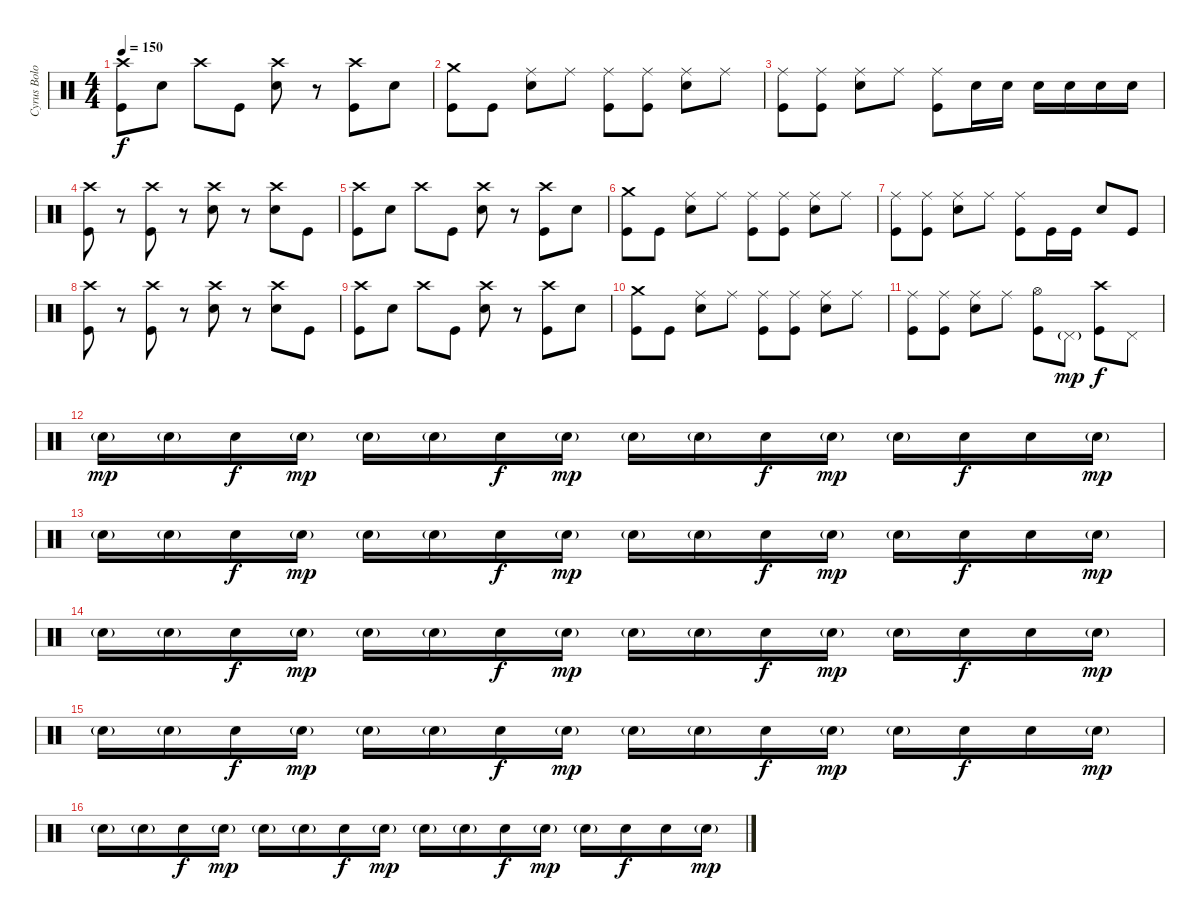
\track ("Cyrus Bolooki - Drums" "Cyrus Bolo") {instrument percussion}
\staff {score}
\articulation defaults
\ts (4 4)
\tempo 150
\clef neutral
\ks c
("Crash high (hit)" "Kick (hit)").8{dy f} "Electric Snare (hit)".8 "Crash high (hit)".8 "Kick (hit)".8 ("Crash high (hit)" "Electric Snare (hit)").8 r.8 ("Crash high (hit)" "Kick (hit)").8 "Electric Snare (hit)".8 |
("Crash medium (hit)" "Kick (hit)").8 "Kick (hit)".8 ("Ride (middle)" "Electric Snare (hit)").8 "Ride (middle)".8 ("Ride (middle)" "Kick (hit)").8 ("Ride (middle)" "Kick (hit)").8 ("Ride (middle)" "Electric Snare (hit)").8 "Ride (middle)".8 |
("Ride (middle)" "Kick (hit)").8 ("Ride (middle)" "Kick (hit)").8 ("Ride (middle)" "Electric Snare (hit)").8 "Ride (middle)".8 ("Ride (middle)" "Kick (hit)").8 "Electric Snare (hit)".16 "Electric Snare (hit)".16 "Electric Snare (hit)".16 "Electric Snare (hit)".16 "Electric Snare (hit)".16 "Electric Snare (hit)".16 |
("Crash high (hit)" "Kick (hit)").8 r.8 ("Crash high (hit)" "Kick (hit)").8 r.8 ("Crash high (hit)" "Electric Snare (hit)").8 r.8 ("Crash high (hit)" "Electric Snare (hit)").8 "Kick (hit)".8 |
("Crash high (hit)" "Kick (hit)").8 "Electric Snare (hit)".8 "Crash high (hit)".8 "Kick (hit)".8 ("Crash high (hit)" "Electric Snare (hit)").8 r.8 ("Crash high (hit)" "Kick (hit)").8 "Electric Snare (hit)".8 |
("Crash medium (hit)" "Kick (hit)").8 "Kick (hit)".8 ("Ride (middle)" "Electric Snare (hit)").8 "Ride (middle)".8 ("Ride (middle)" "Kick (hit)").8 ("Ride (middle)" "Kick (hit)").8 ("Ride (middle)" "Electric Snare (hit)").8 "Ride (middle)".8 |
("Ride (middle)" "Kick (hit)").8 ("Ride (middle)" "Kick (hit)").8 ("Ride (middle)" "Electric Snare (hit)").8 "Ride (middle)".8 ("Ride (middle)" "Kick (hit)").8 "Kick (hit)".16 "Kick (hit)".16 "Electric Snare (hit)".8 "Kick (hit)".8 |
("Crash high (hit)" "Kick (hit)").8 r.8 ("Crash high (hit)" "Kick (hit)").8 r.8 ("Crash high (hit)" "Electric Snare (hit)").8 r.8 ("Crash high (hit)" "Electric Snare (hit)").8 "Kick (hit)".8 |
("Crash high (hit)" "Kick (hit)").8 "Electric Snare (hit)".8 "Crash high (hit)".8 "Kick (hit)".8 ("Crash high (hit)" "Electric Snare (hit)").8 r.8 ("Crash high (hit)" "Kick (hit)").8 "Electric Snare (hit)".8 |
("Crash medium (hit)" "Kick (hit)").8 "Kick (hit)".8 ("Ride (middle)" "Electric Snare (hit)").8 "Ride (middle)".8 ("Ride (middle)" "Kick (hit)").8 ("Ride (middle)" "Kick (hit)").8 ("Ride (middle)" "Electric Snare (hit)").8 "Ride (middle)".8 |
("Ride (middle)" "Kick (hit)").8 ("Ride (middle)" "Kick (hit)").8 ("Ride (middle)" "Electric Snare (hit)").8 "Ride (middle)".8 ("Hi-Hat (open)" "Kick (hit)").8 "Pedal Hi-Hat (hit)"{g}.8{dy mp} ("Crash high (hit)" "Kick (hit)").8{dy f} "Pedal Hi-Hat (hit)".8 |
"Electric Snare (hit)"{g}.16{dy mp} "Electric Snare (hit)"{g}.16 "Electric Snare (hit)".16{dy f} "Electric Snare (hit)"{g}.16{dy mp} "Electric Snare (hit)"{g}.16 "Electric Snare (hit)"{g}.16 "Electric Snare (hit)".16{dy f} "Electric Snare (hit)"{g}.16{dy mp} "Electric Snare (hit)"{g}.16 "Electric Snare (hit)"{g}.16 "Electric Snare (hit)".16{dy f} "Electric Snare (hit)"{g}.16{dy mp} "Electric Snare (hit)"{g}.16 "Electric Snare (hit)".16{dy f} "Electric Snare (hit)".16 "Electric Snare (hit)"{g}.16{dy mp} |
"Electric Snare (hit)"{g}.16 "Electric Snare (hit)"{g}.16 "Electric Snare (hit)".16{dy f} "Electric Snare (hit)"{g}.16{dy mp} "Electric Snare (hit)"{g}.16 "Electric Snare (hit)"{g}.16 "Electric Snare (hit)".16{dy f} "Electric Snare (hit)"{g}.16{dy mp} "Electric Snare (hit)"{g}.16 "Electric Snare (hit)"{g}.16 "Electric Snare (hit)".16{dy f} "Electric Snare (hit)"{g}.16{dy mp} "Electric Snare (hit)"{g}.16 "Electric Snare (hit)".16{dy f} "Electric Snare (hit)".16 "Electric Snare (hit)"{g}.16{dy mp} |
"Electric Snare (hit)"{g}.16 "Electric Snare (hit)"{g}.16 "Electric Snare (hit)".16{dy f} "Electric Snare (hit)"{g}.16{dy mp} "Electric Snare (hit)"{g}.16 "Electric Snare (hit)"{g}.16 "Electric Snare (hit)".16{dy f} "Electric Snare (hit)"{g}.16{dy mp} "Electric Snare (hit)"{g}.16 "Electric Snare (hit)"{g}.16 "Electric Snare (hit)".16{dy f} "Electric Snare (hit)"{g}.16{dy mp} "Electric Snare (hit)"{g}.16 "Electric Snare (hit)".16{dy f} "Electric Snare (hit)".16 "Electric Snare (hit)"{g}.16{dy mp} |
"Electric Snare (hit)"{g}.16 "Electric Snare (hit)"{g}.16 "Electric Snare (hit)".16{dy f} "Electric Snare (hit)"{g}.16{dy mp} "Electric Snare (hit)"{g}.16 "Electric Snare (hit)"{g}.16 "Electric Snare (hit)".16{dy f} "Electric Snare (hit)"{g}.16{dy mp} "Electric Snare (hit)"{g}.16 "Electric Snare (hit)"{g}.16 "Electric Snare (hit)".16{dy f} "Electric Snare (hit)"{g}.16{dy mp} "Electric Snare (hit)"{g}.16 "Electric Snare (hit)".16{dy f} "Electric Snare (hit)".16 "Electric Snare (hit)"{g}.16{dy mp} |
"Electric Snare (hit)"{g}.16 "Electric Snare (hit)"{g}.16 "Electric Snare (hit)".16{dy f} "Electric Snare (hit)"{g}.16{dy mp} "Electric Snare (hit)"{g}.16 "Electric Snare (hit)"{g}.16 "Electric Snare (hit)".16{dy f} "Electric Snare (hit)"{g}.16{dy mp} "Electric Snare (hit)"{g}.16 "Electric Snare (hit)"{g}.16 "Electric Snare (hit)".16{dy f} "Electric Snare (hit)"{g}.16{dy mp} "Electric Snare (hit)"{g}.16 "Electric Snare (hit)".16{dy f} "Electric Snare (hit)".16 "Electric Snare (hit)"{g}.16{dy mp}
